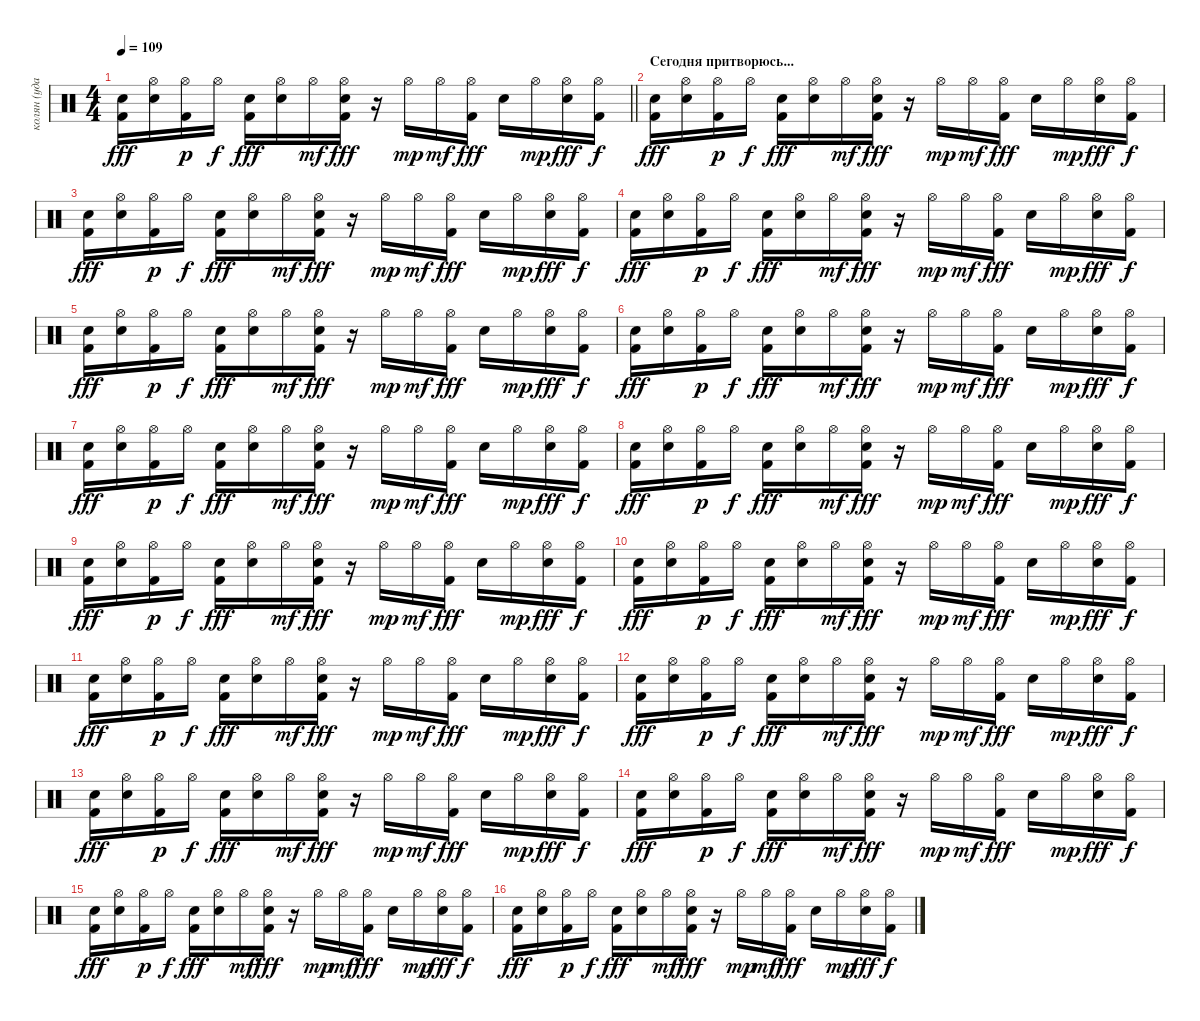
\track ("колян (ударные)" "колян (уда") {instrument percussion}
\staff
\articulation defaults
\ts (4 4)
\tempo 109
\clef neutral
\barLineRight lightlight
\ks c
("Snare (hit) 2" "Kick (hit) 2").16{dy fff} ("Hi-Hat (open)" "Snare (hit) 2").16 ("Hi-Hat (open)" "Kick (hit) 2").16{dy p} "Hi-Hat (open)".16{dy f} ("Snare (hit) 2" "Kick (hit) 2").16{dy fff} ("Hi-Hat (open)" "Snare (hit) 2").16 "Hi-Hat (open)".16{dy mf} ("Hi-Hat (open)" "Snare (hit) 2" "Kick (hit) 2").16{dy fff} r.16 "Hi-Hat (open)".16{dy mp} "Hi-Hat (open)".16{dy mf} ("Hi-Hat (open)" "Kick (hit) 2").16{dy fff} "Snare (hit) 2".16 "Hi-Hat (open)".16{dy mp} ("Hi-Hat (open)" "Snare (hit) 2").16{dy fff} ("Hi-Hat (open)" "Kick (hit) 2").16{dy f} |
\section ("" "Сегодня притворюсь...")
("Snare (hit) 2" "Kick (hit) 2").16{dy fff} ("Hi-Hat (open)" "Snare (hit) 2").16 ("Hi-Hat (open)" "Kick (hit) 2").16{dy p} "Hi-Hat (open)".16{dy f} ("Snare (hit) 2" "Kick (hit) 2").16{dy fff} ("Hi-Hat (open)" "Snare (hit) 2").16 "Hi-Hat (open)".16{dy mf} ("Hi-Hat (open)" "Snare (hit) 2" "Kick (hit) 2").16{dy fff} r.16 "Hi-Hat (open)".16{dy mp} "Hi-Hat (open)".16{dy mf} ("Hi-Hat (open)" "Kick (hit) 2").16{dy fff} "Snare (hit) 2".16 "Hi-Hat (open)".16{dy mp} ("Hi-Hat (open)" "Snare (hit) 2").16{dy fff} ("Hi-Hat (open)" "Kick (hit) 2").16{dy f} |
("Snare (hit) 2" "Kick (hit) 2").16{dy fff} ("Hi-Hat (open)" "Snare (hit) 2").16 ("Hi-Hat (open)" "Kick (hit) 2").16{dy p} "Hi-Hat (open)".16{dy f} ("Snare (hit) 2" "Kick (hit) 2").16{dy fff} ("Hi-Hat (open)" "Snare (hit) 2").16 "Hi-Hat (open)".16{dy mf} ("Hi-Hat (open)" "Snare (hit) 2" "Kick (hit) 2").16{dy fff} r.16 "Hi-Hat (open)".16{dy mp} "Hi-Hat (open)".16{dy mf} ("Hi-Hat (open)" "Kick (hit) 2").16{dy fff} "Snare (hit) 2".16 "Hi-Hat (open)".16{dy mp} ("Hi-Hat (open)" "Snare (hit) 2").16{dy fff} ("Hi-Hat (open)" "Kick (hit) 2").16{dy f} |
("Snare (hit) 2" "Kick (hit) 2").16{dy fff} ("Hi-Hat (open)" "Snare (hit) 2").16 ("Hi-Hat (open)" "Kick (hit) 2").16{dy p} "Hi-Hat (open)".16{dy f} ("Snare (hit) 2" "Kick (hit) 2").16{dy fff} ("Hi-Hat (open)" "Snare (hit) 2").16 "Hi-Hat (open)".16{dy mf} ("Hi-Hat (open)" "Snare (hit) 2" "Kick (hit) 2").16{dy fff} r.16 "Hi-Hat (open)".16{dy mp} "Hi-Hat (open)".16{dy mf} ("Hi-Hat (open)" "Kick (hit) 2").16{dy fff} "Snare (hit) 2".16 "Hi-Hat (open)".16{dy mp} ("Hi-Hat (open)" "Snare (hit) 2").16{dy fff} ("Hi-Hat (open)" "Kick (hit) 2").16{dy f} |
("Snare (hit) 2" "Kick (hit) 2").16{dy fff} ("Hi-Hat (open)" "Snare (hit) 2").16 ("Hi-Hat (open)" "Kick (hit) 2").16{dy p} "Hi-Hat (open)".16{dy f} ("Snare (hit) 2" "Kick (hit) 2").16{dy fff} ("Hi-Hat (open)" "Snare (hit) 2").16 "Hi-Hat (open)".16{dy mf} ("Hi-Hat (open)" "Snare (hit) 2" "Kick (hit) 2").16{dy fff} r.16 "Hi-Hat (open)".16{dy mp} "Hi-Hat (open)".16{dy mf} ("Hi-Hat (open)" "Kick (hit) 2").16{dy fff} "Snare (hit) 2".16 "Hi-Hat (open)".16{dy mp} ("Hi-Hat (open)" "Snare (hit) 2").16{dy fff} ("Hi-Hat (open)" "Kick (hit) 2").16{dy f} |
("Snare (hit) 2" "Kick (hit) 2").16{dy fff} ("Hi-Hat (open)" "Snare (hit) 2").16 ("Hi-Hat (open)" "Kick (hit) 2").16{dy p} "Hi-Hat (open)".16{dy f} ("Snare (hit) 2" "Kick (hit) 2").16{dy fff} ("Hi-Hat (open)" "Snare (hit) 2").16 "Hi-Hat (open)".16{dy mf} ("Hi-Hat (open)" "Snare (hit) 2" "Kick (hit) 2").16{dy fff} r.16 "Hi-Hat (open)".16{dy mp} "Hi-Hat (open)".16{dy mf} ("Hi-Hat (open)" "Kick (hit) 2").16{dy fff} "Snare (hit) 2".16 "Hi-Hat (open)".16{dy mp} ("Hi-Hat (open)" "Snare (hit) 2").16{dy fff} ("Hi-Hat (open)" "Kick (hit) 2").16{dy f} |
("Snare (hit) 2" "Kick (hit) 2").16{dy fff} ("Hi-Hat (open)" "Snare (hit) 2").16 ("Hi-Hat (open)" "Kick (hit) 2").16{dy p} "Hi-Hat (open)".16{dy f} ("Snare (hit) 2" "Kick (hit) 2").16{dy fff} ("Hi-Hat (open)" "Snare (hit) 2").16 "Hi-Hat (open)".16{dy mf} ("Hi-Hat (open)" "Snare (hit) 2" "Kick (hit) 2").16{dy fff} r.16 "Hi-Hat (open)".16{dy mp} "Hi-Hat (open)".16{dy mf} ("Hi-Hat (open)" "Kick (hit) 2").16{dy fff} "Snare (hit) 2".16 "Hi-Hat (open)".16{dy mp} ("Hi-Hat (open)" "Snare (hit) 2").16{dy fff} ("Hi-Hat (open)" "Kick (hit) 2").16{dy f} |
("Snare (hit) 2" "Kick (hit) 2").16{dy fff} ("Hi-Hat (open)" "Snare (hit) 2").16 ("Hi-Hat (open)" "Kick (hit) 2").16{dy p} "Hi-Hat (open)".16{dy f} ("Snare (hit) 2" "Kick (hit) 2").16{dy fff} ("Hi-Hat (open)" "Snare (hit) 2").16 "Hi-Hat (open)".16{dy mf} ("Hi-Hat (open)" "Snare (hit) 2" "Kick (hit) 2").16{dy fff} r.16 "Hi-Hat (open)".16{dy mp} "Hi-Hat (open)".16{dy mf} ("Hi-Hat (open)" "Kick (hit) 2").16{dy fff} "Snare (hit) 2".16 "Hi-Hat (open)".16{dy mp} ("Hi-Hat (open)" "Snare (hit) 2").16{dy fff} ("Hi-Hat (open)" "Kick (hit) 2").16{dy f} |
("Snare (hit) 2" "Kick (hit) 2").16{dy fff} ("Hi-Hat (open)" "Snare (hit) 2").16 ("Hi-Hat (open)" "Kick (hit) 2").16{dy p} "Hi-Hat (open)".16{dy f} ("Snare (hit) 2" "Kick (hit) 2").16{dy fff} ("Hi-Hat (open)" "Snare (hit) 2").16 "Hi-Hat (open)".16{dy mf} ("Hi-Hat (open)" "Snare (hit) 2" "Kick (hit) 2").16{dy fff} r.16 "Hi-Hat (open)".16{dy mp} "Hi-Hat (open)".16{dy mf} ("Hi-Hat (open)" "Kick (hit) 2").16{dy fff} "Snare (hit) 2".16 "Hi-Hat (open)".16{dy mp} ("Hi-Hat (open)" "Snare (hit) 2").16{dy fff} ("Hi-Hat (open)" "Kick (hit) 2").16{dy f} |
("Snare (hit) 2" "Kick (hit) 2").16{dy fff} ("Hi-Hat (open)" "Snare (hit) 2").16 ("Hi-Hat (open)" "Kick (hit) 2").16{dy p} "Hi-Hat (open)".16{dy f} ("Snare (hit) 2" "Kick (hit) 2").16{dy fff} ("Hi-Hat (open)" "Snare (hit) 2").16 "Hi-Hat (open)".16{dy mf} ("Hi-Hat (open)" "Snare (hit) 2" "Kick (hit) 2").16{dy fff} r.16 "Hi-Hat (open)".16{dy mp} "Hi-Hat (open)".16{dy mf} ("Hi-Hat (open)" "Kick (hit) 2").16{dy fff} "Snare (hit) 2".16 "Hi-Hat (open)".16{dy mp} ("Hi-Hat (open)" "Snare (hit) 2").16{dy fff} ("Hi-Hat (open)" "Kick (hit) 2").16{dy f} |
("Snare (hit) 2" "Kick (hit) 2").16{dy fff} ("Hi-Hat (open)" "Snare (hit) 2").16 ("Hi-Hat (open)" "Kick (hit) 2").16{dy p} "Hi-Hat (open)".16{dy f} ("Snare (hit) 2" "Kick (hit) 2").16{dy fff} ("Hi-Hat (open)" "Snare (hit) 2").16 "Hi-Hat (open)".16{dy mf} ("Hi-Hat (open)" "Snare (hit) 2" "Kick (hit) 2").16{dy fff} r.16 "Hi-Hat (open)".16{dy mp} "Hi-Hat (open)".16{dy mf} ("Hi-Hat (open)" "Kick (hit) 2").16{dy fff} "Snare (hit) 2".16 "Hi-Hat (open)".16{dy mp} ("Hi-Hat (open)" "Snare (hit) 2").16{dy fff} ("Hi-Hat (open)" "Kick (hit) 2").16{dy f} |
("Snare (hit) 2" "Kick (hit) 2").16{dy fff} ("Hi-Hat (open)" "Snare (hit) 2").16 ("Hi-Hat (open)" "Kick (hit) 2").16{dy p} "Hi-Hat (open)".16{dy f} ("Snare (hit) 2" "Kick (hit) 2").16{dy fff} ("Hi-Hat (open)" "Snare (hit) 2").16 "Hi-Hat (open)".16{dy mf} ("Hi-Hat (open)" "Snare (hit) 2" "Kick (hit) 2").16{dy fff} r.16 "Hi-Hat (open)".16{dy mp} "Hi-Hat (open)".16{dy mf} ("Hi-Hat (open)" "Kick (hit) 2").16{dy fff} "Snare (hit) 2".16 "Hi-Hat (open)".16{dy mp} ("Hi-Hat (open)" "Snare (hit) 2").16{dy fff} ("Hi-Hat (open)" "Kick (hit) 2").16{dy f} |
("Snare (hit) 2" "Kick (hit) 2").16{dy fff} ("Hi-Hat (open)" "Snare (hit) 2").16 ("Hi-Hat (open)" "Kick (hit) 2").16{dy p} "Hi-Hat (open)".16{dy f} ("Snare (hit) 2" "Kick (hit) 2").16{dy fff} ("Hi-Hat (open)" "Snare (hit) 2").16 "Hi-Hat (open)".16{dy mf} ("Hi-Hat (open)" "Snare (hit) 2" "Kick (hit) 2").16{dy fff} r.16 "Hi-Hat (open)".16{dy mp} "Hi-Hat (open)".16{dy mf} ("Hi-Hat (open)" "Kick (hit) 2").16{dy fff} "Snare (hit) 2".16 "Hi-Hat (open)".16{dy mp} ("Hi-Hat (open)" "Snare (hit) 2").16{dy fff} ("Hi-Hat (open)" "Kick (hit) 2").16{dy f} |
("Snare (hit) 2" "Kick (hit) 2").16{dy fff} ("Hi-Hat (open)" "Snare (hit) 2").16 ("Hi-Hat (open)" "Kick (hit) 2").16{dy p} "Hi-Hat (open)".16{dy f} ("Snare (hit) 2" "Kick (hit) 2").16{dy fff} ("Hi-Hat (open)" "Snare (hit) 2").16 "Hi-Hat (open)".16{dy mf} ("Hi-Hat (open)" "Snare (hit) 2" "Kick (hit) 2").16{dy fff} r.16 "Hi-Hat (open)".16{dy mp} "Hi-Hat (open)".16{dy mf} ("Hi-Hat (open)" "Kick (hit) 2").16{dy fff} "Snare (hit) 2".16 "Hi-Hat (open)".16{dy mp} ("Hi-Hat (open)" "Snare (hit) 2").16{dy fff} ("Hi-Hat (open)" "Kick (hit) 2").16{dy f} |
("Snare (hit) 2" "Kick (hit) 2").16{dy fff} ("Hi-Hat (open)" "Snare (hit) 2").16 ("Hi-Hat (open)" "Kick (hit) 2").16{dy p} "Hi-Hat (open)".16{dy f} ("Snare (hit) 2" "Kick (hit) 2").16{dy fff} ("Hi-Hat (open)" "Snare (hit) 2").16 "Hi-Hat (open)".16{dy mf} ("Hi-Hat (open)" "Snare (hit) 2" "Kick (hit) 2").16{dy fff} r.16 "Hi-Hat (open)".16{dy mp} "Hi-Hat (open)".16{dy mf} ("Hi-Hat (open)" "Kick (hit) 2").16{dy fff} "Snare (hit) 2".16 "Hi-Hat (open)".16{dy mp} ("Hi-Hat (open)" "Snare (hit) 2").16{dy fff} ("Hi-Hat (open)" "Kick (hit) 2").16{dy f} |
("Snare (hit) 2" "Kick (hit) 2").16{dy fff} ("Hi-Hat (open)" "Snare (hit) 2").16 ("Hi-Hat (open)" "Kick (hit) 2").16{dy p} "Hi-Hat (open)".16{dy f} ("Snare (hit) 2" "Kick (hit) 2").16{dy fff} ("Hi-Hat (open)" "Snare (hit) 2").16 "Hi-Hat (open)".16{dy mf} ("Hi-Hat (open)" "Snare (hit) 2" "Kick (hit) 2").16{dy fff} r.16 "Hi-Hat (open)".16{dy mp} "Hi-Hat (open)".16{dy mf} ("Hi-Hat (open)" "Kick (hit) 2").16{dy fff} "Snare (hit) 2".16 "Hi-Hat (open)".16{dy mp} ("Hi-Hat (open)" "Snare (hit) 2").16{dy fff} ("Hi-Hat (open)" "Kick (hit) 2").16{dy f}
